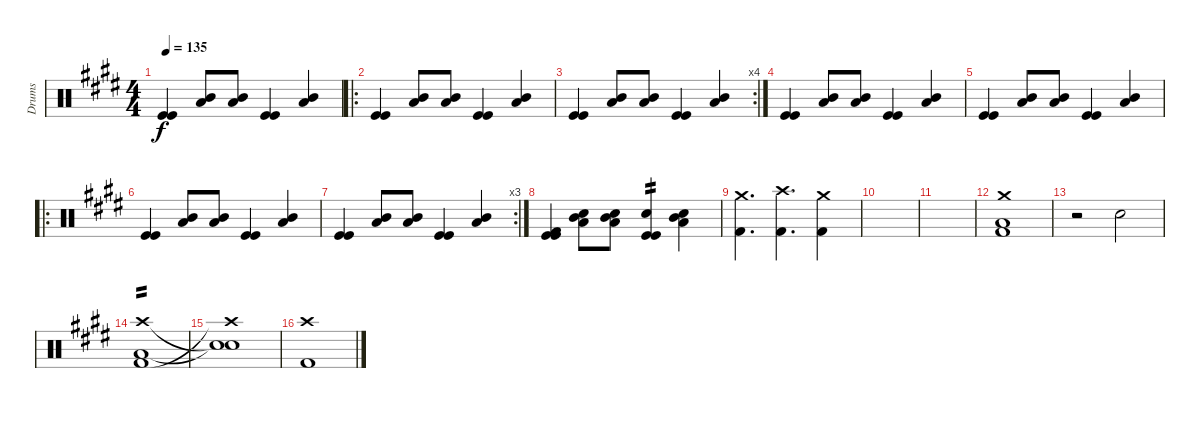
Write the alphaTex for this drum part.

\track ("Drums" "Drums") {instrument percussion}
\staff {score}
\articulation defaults
\ts (4 4)
\tempo 135
\clef neutral
\ks e
("Kick (hit)" "Kick (hit)").4{dy f} ("Low Tom (hit)" "Mid Tom (hit)").8 ("Low Tom (hit)" "Mid Tom (hit)").8 ("Kick (hit)" "Kick (hit)").4 ("Low Tom (hit)" "Mid Tom (hit)").4 |
\ro
("Kick (hit)" "Kick (hit)").4 ("Low Tom (hit)" "Mid Tom (hit)").8 ("Low Tom (hit)" "Mid Tom (hit)").8 ("Kick (hit)" "Kick (hit)").4 ("Low Tom (hit)" "Mid Tom (hit)").4 |
\rc 4
("Kick (hit)" "Kick (hit)").4 ("Low Tom (hit)" "Mid Tom (hit)").8 ("Low Tom (hit)" "Mid Tom (hit)").8 ("Kick (hit)" "Kick (hit)").4 ("Low Tom (hit)" "Mid Tom (hit)").4 |
("Kick (hit)" "Kick (hit)").4 ("Low Tom (hit)" "Mid Tom (hit)").8 ("Low Tom (hit)" "Mid Tom (hit)").8 ("Kick (hit)" "Kick (hit)").4 ("Low Tom (hit)" "Mid Tom (hit)").4 |
("Kick (hit)" "Kick (hit)").4 ("Low Tom (hit)" "Mid Tom (hit)").8 ("Low Tom (hit)" "Mid Tom (hit)").8 ("Kick (hit)" "Kick (hit)").4 ("Low Tom (hit)" "Mid Tom (hit)").4 |
\ro
("Kick (hit)" "Kick (hit)").4 ("Low Tom (hit)" "Mid Tom (hit)").8 ("Low Tom (hit)" "Mid Tom (hit)").8 ("Kick (hit)" "Kick (hit)").4 ("Low Tom (hit)" "Mid Tom (hit)").4 |
\rc 3
("Kick (hit)" "Kick (hit)").4 ("Low Tom (hit)" "Mid Tom (hit)").8 ("Low Tom (hit)" "Mid Tom (hit)").8 ("Kick (hit)" "Kick (hit)").4 ("Low Tom (hit)" "Mid Tom (hit)").4 |
("Kick (hit) 2" "Kick (hit)" "Kick (hit)").4 ("Snare (hit) 2" "Low Tom (hit)" "Mid Tom (hit)").8 ("Snare (hit) 2" "Low Tom (hit)" "Mid Tom (hit)").8 ("Snare (hit) 2" "Kick (hit)" "Kick (hit)").4{tp 2} ("Snare (hit) 2" "Low Tom (hit)" "Mid Tom (hit)").4 |
("Crash medium (hit)" "Kick (hit) 2").4{d} ("Crash high (hit)" "Kick (hit) 2").4{d} ("Crash medium (hit)" "Kick (hit) 2").4 |
|
|
("Low Floor Tom (hit)" "Kick (hit) 2" "Crash medium (hit)").1 |
r.2 "Snare (hit) 2".2 |
("Low Floor Tom (hit)" "Kick (hit) 2" "Crash high (hit)").1{tp 2} |
("Snare (hit)"{t} "Crash high (hit)"{t} "Snare (hit)"{t}).1 |
("Crash high (hit)" "Kick (hit) 2").1
